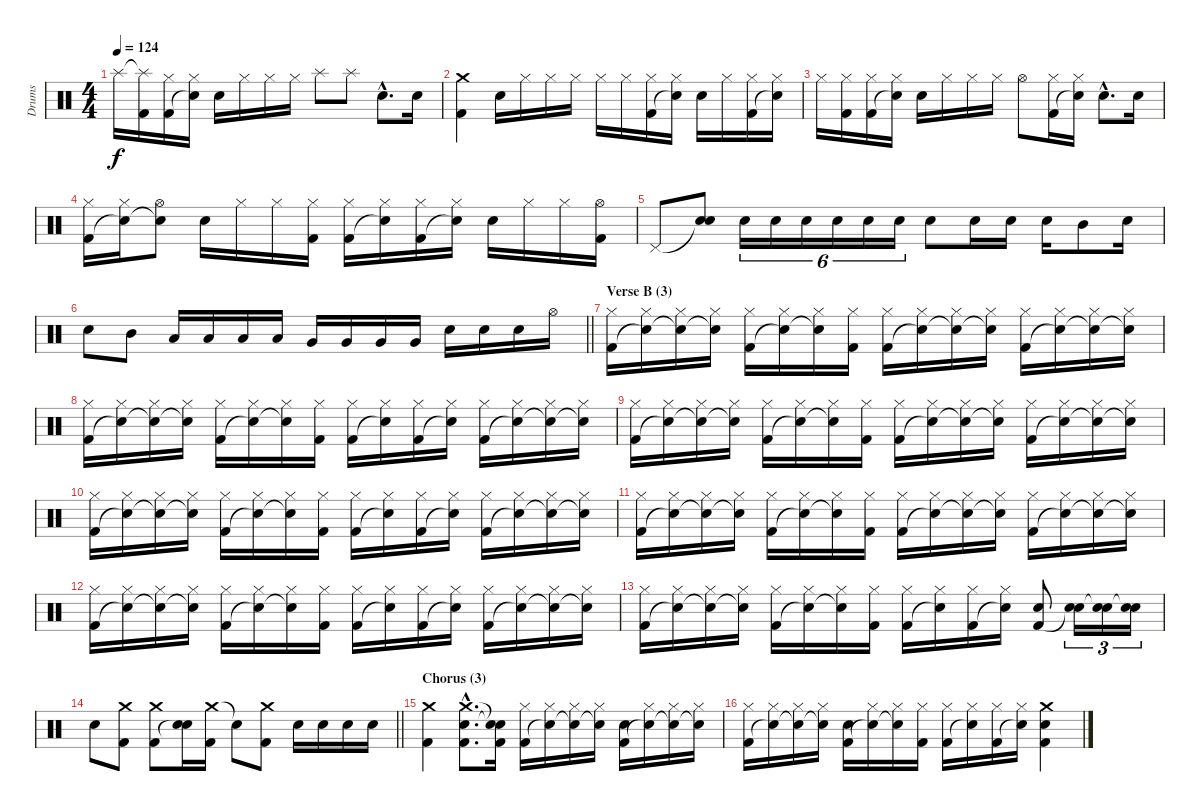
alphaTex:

\track ("Drums" "Drums") {instrument percussion}
\staff {score}
\articulation defaults
\ts (4 4)
\tempo 124
\clef neutral
\ks aminor "Splash (hit)".16{dy f}
("Splash (hit)"{t} "Kick (hit) 2").16 ("Hi-Hat (closed)" "Kick (hit) 2").16 ("Hi-Hat (closed)" "Snare (hit)"{t}).16 "Electric Snare (hit)".16 "Hi-Hat (closed)".16 "Hi-Hat (closed)".16 "Hi-Hat (closed)".16 "Splash (hit)".8 "Splash (hit)".8 "Electric Snare (hit)"{hac}.8{d} "Electric Snare (hit)".16 |
("Crash medium (hit)" "Kick (hit) 2").4 "Electric Snare (hit)".16 "Hi-Hat (closed)".16 "Hi-Hat (closed)".16 "Hi-Hat (closed)".16 "Hi-Hat (closed)".16 "Hi-Hat (closed)".16 ("Hi-Hat (closed)" "Kick (hit) 2").16 ("Hi-Hat (closed)" "Snare (hit)"{t}).16 "Electric Snare (hit)".16 "Hi-Hat (closed)".16 ("Hi-Hat (closed)" "Kick (hit) 2").16 ("Hi-Hat (closed)" "Snare (hit)"{t}).16 |
"Hi-Hat (closed)".16 ("Hi-Hat (closed)" "Kick (hit) 2").16 ("Hi-Hat (closed)" "Kick (hit) 2").16 ("Hi-Hat (closed)" "Snare (hit)"{t}).16 "Electric Snare (hit)".16 "Hi-Hat (closed)".16 "Hi-Hat (closed)".16 "Hi-Hat (closed)".16 "Hi-Hat (open)".8 ("Hi-Hat (closed)" "Kick (hit) 2").16 ("Hi-Hat (closed)" "Snare (hit)"{t}).16 "Electric Snare (hit)"{hac}.8{d} "Electric Snare (hit)".16 |
("Hi-Hat (closed)" "Kick (hit) 2").16 ("Hi-Hat (closed)" "Snare (hit)"{t}).16 ("Hi-Hat (open)" "Snare (hit)"{t}).8 "Electric Snare (hit)".16 "Hi-Hat (closed)".16 "Hi-Hat (closed)".16 ("Hi-Hat (closed)" "Kick (hit) 2").16 ("Hi-Hat (closed)" "Kick (hit) 2").16 ("Hi-Hat (closed)" "Snare (hit)"{t}).16 ("Hi-Hat (closed)" "Kick (hit) 2").16 ("Hi-Hat (closed)" "Snare (hit)"{t}).16 "Electric Snare (hit)".16 "Hi-Hat (closed)".16 "Hi-Hat (closed)".16 ("Hi-Hat (open)" "Kick (hit) 2").16 |
"Pedal Hi-Hat (hit)".8 ("Electric Snare (hit)"{t} "Electric Snare (hit)").8 "Electric Snare (hit)".16{tu (6 4)} "Electric Snare (hit)".16{tu (6 4)} "Electric Snare (hit)".16{tu (6 4)} "Electric Snare (hit)".16{tu (6 4)} "Electric Snare (hit)".16{tu (6 4)} "Electric Snare (hit)".16{tu (6 4)} "Electric Snare (hit)".8 "Electric Snare (hit)".16 "Electric Snare (hit)".16 "Electric Snare (hit)".16 "Mid Tom (hit)".8 "Electric Snare (hit)".16 |
\barLineRight lightlight "Electric Snare (hit)".8 "Mid Tom (hit)".8 "Low Tom (hit)".16 "Low Tom (hit)".16 "Low Tom (hit)".16 "Low Tom (hit)".16 "Very Low Tom (hit)".16 "Very Low Tom (hit)".16 "Very Low Tom (hit)".16 "Very Low Tom (hit)".16 "Electric Snare (hit)".16 "Electric Snare (hit)".16 "Electric Snare (hit)".16 "Hi-Hat (open)".16
|
\section ("" "Verse B (3)")
("Hi-Hat (closed)" "Kick (hit) 2").16 ("Hi-Hat (closed)" "Snare (hit)"{t}).16 ("Hi-Hat (closed)" "Snare (hit)"{t}).16 ("Hi-Hat (closed)" "Snare (hit)"{t}).16 ("Hi-Hat (closed)" "Kick (hit) 2").16 ("Hi-Hat (closed)" "Snare (hit)"{t}).16 ("Hi-Hat (closed)" "Snare (hit)"{t}).16 ("Hi-Hat (closed)" "Kick (hit) 2").16 ("Hi-Hat (closed)" "Kick (hit) 2").16 ("Hi-Hat (closed)" "Snare (hit)"{t}).16 ("Hi-Hat (closed)" "Snare (hit)"{t}).16 ("Hi-Hat (closed)" "Snare (hit)"{t}).16 ("Hi-Hat (closed)" "Kick (hit) 2").16 ("Hi-Hat (closed)" "Snare (hit)"{t}).16 ("Hi-Hat (closed)" "Snare (hit)"{t}).16 ("Hi-Hat (closed)" "Snare (hit)"{t}).16 |
("Hi-Hat (closed)" "Kick (hit) 2").16 ("Hi-Hat (closed)" "Snare (hit)"{t}).16 ("Hi-Hat (closed)" "Snare (hit)"{t}).16 ("Hi-Hat (closed)" "Snare (hit)"{t}).16 ("Hi-Hat (closed)" "Kick (hit) 2").16 ("Hi-Hat (closed)" "Snare (hit)"{t}).16 ("Hi-Hat (closed)" "Snare (hit)"{t}).16 ("Hi-Hat (closed)" "Kick (hit) 2").16 ("Hi-Hat (closed)" "Kick (hit) 2").16 ("Hi-Hat (closed)" "Snare (hit)"{t}).16 ("Hi-Hat (closed)" "Kick (hit) 2").16 ("Hi-Hat (closed)" "Snare (hit)"{t}).16 ("Hi-Hat (closed)" "Kick (hit) 2").16 ("Hi-Hat (closed)" "Snare (hit)"{t}).16 ("Hi-Hat (closed)" "Snare (hit)"{t}).16 ("Hi-Hat (closed)" "Snare (hit)"{t}).16 |
("Hi-Hat (closed)" "Kick (hit) 2").16 ("Hi-Hat (closed)" "Snare (hit)"{t}).16 ("Hi-Hat (closed)" "Snare (hit)"{t}).16 ("Hi-Hat (closed)" "Snare (hit)"{t}).16 ("Hi-Hat (closed)" "Kick (hit) 2").16 ("Hi-Hat (closed)" "Snare (hit)"{t}).16 ("Hi-Hat (closed)" "Snare (hit)"{t}).16 ("Hi-Hat (closed)" "Kick (hit) 2").16 ("Hi-Hat (closed)" "Kick (hit) 2").16 ("Hi-Hat (closed)" "Snare (hit)"{t}).16 ("Hi-Hat (closed)" "Snare (hit)"{t}).16 ("Hi-Hat (closed)" "Snare (hit)"{t}).16 ("Hi-Hat (closed)" "Kick (hit) 2").16 ("Hi-Hat (closed)" "Snare (hit)"{t}).16 ("Hi-Hat (closed)" "Snare (hit)"{t}).16 ("Hi-Hat (closed)" "Snare (hit)"{t}).16 |
("Hi-Hat (closed)" "Kick (hit) 2").16 ("Hi-Hat (closed)" "Snare (hit)"{t}).16 ("Hi-Hat (closed)" "Snare (hit)"{t}).16 ("Hi-Hat (closed)" "Snare (hit)"{t}).16 ("Hi-Hat (closed)" "Kick (hit) 2").16 ("Hi-Hat (closed)" "Snare (hit)"{t}).16 ("Hi-Hat (closed)" "Snare (hit)"{t}).16 ("Hi-Hat (closed)" "Kick (hit) 2").16 ("Hi-Hat (closed)" "Kick (hit) 2").16 ("Hi-Hat (closed)" "Snare (hit)"{t}).16 ("Hi-Hat (closed)" "Kick (hit) 2").16 ("Hi-Hat (closed)" "Snare (hit)"{t}).16 ("Hi-Hat (closed)" "Kick (hit) 2").16 ("Hi-Hat (closed)" "Snare (hit)"{t}).16 ("Hi-Hat (closed)" "Snare (hit)"{t}).16 ("Hi-Hat (closed)" "Snare (hit)"{t}).16 |
("Hi-Hat (closed)" "Kick (hit) 2").16 ("Hi-Hat (closed)" "Snare (hit)"{t}).16 ("Hi-Hat (closed)" "Snare (hit)"{t}).16 ("Hi-Hat (closed)" "Snare (hit)"{t}).16 ("Hi-Hat (closed)" "Kick (hit) 2").16 ("Hi-Hat (closed)" "Snare (hit)"{t}).16 ("Hi-Hat (closed)" "Snare (hit)"{t}).16 ("Hi-Hat (closed)" "Kick (hit) 2").16 ("Hi-Hat (closed)" "Kick (hit) 2").16 ("Hi-Hat (closed)" "Snare (hit)"{t}).16 ("Hi-Hat (closed)" "Snare (hit)"{t}).16 ("Hi-Hat (closed)" "Snare (hit)"{t}).16 ("Hi-Hat (closed)" "Kick (hit) 2").16 ("Hi-Hat (closed)" "Snare (hit)"{t}).16 ("Hi-Hat (closed)" "Snare (hit)"{t}).16 ("Hi-Hat (closed)" "Snare (hit)"{t}).16 |
("Hi-Hat (closed)" "Kick (hit) 2").16 ("Hi-Hat (closed)" "Snare (hit)"{t}).16 ("Hi-Hat (closed)" "Snare (hit)"{t}).16 ("Hi-Hat (closed)" "Snare (hit)"{t}).16 ("Hi-Hat (closed)" "Kick (hit) 2").16 ("Hi-Hat (closed)" "Snare (hit)"{t}).16 ("Hi-Hat (closed)" "Snare (hit)"{t}).16 ("Hi-Hat (closed)" "Kick (hit) 2").16 ("Hi-Hat (closed)" "Kick (hit) 2").16 ("Hi-Hat (closed)" "Snare (hit)"{t}).16 ("Hi-Hat (closed)" "Kick (hit) 2").16 ("Hi-Hat (closed)" "Snare (hit)"{t}).16 ("Hi-Hat (closed)" "Kick (hit) 2").16 ("Hi-Hat (closed)" "Snare (hit)"{t}).16 ("Hi-Hat (closed)" "Snare (hit)"{t}).16 ("Hi-Hat (closed)" "Snare (hit)"{t}).16 |
("Hi-Hat (closed)" "Kick (hit) 2").16 ("Hi-Hat (closed)" "Snare (hit)"{t}).16 ("Hi-Hat (closed)" "Snare (hit)"{t}).16 ("Hi-Hat (closed)" "Snare (hit)"{t}).16 ("Hi-Hat (closed)" "Kick (hit) 2").16 ("Hi-Hat (closed)" "Snare (hit)"{t}).16 ("Hi-Hat (closed)" "Snare (hit)"{t}).16 ("Hi-Hat (closed)" "Kick (hit) 2").16 ("Hi-Hat (closed)" "Kick (hit) 2").16 ("Hi-Hat (closed)" "Snare (hit)"{t}).16 ("Hi-Hat (closed)" "Kick (hit) 2").16 ("Hi-Hat (closed)" "Snare (hit)"{t}).16 ("Electric Snare (hit)" "Kick (hit) 2").8 ("Electric Snare (hit)" "Snare (hit)"{t}).16{tu (3 2)} ("Electric Snare (hit)" "Snare (hit)"{t}).16{tu (3 2)} ("Electric Snare (hit)" "Snare (hit)"{t}).16{tu (3 2)} |
\barLineRight lightlight "Electric Snare (hit)".8
("Crash medium (hit)" "Kick (hit) 2").8 ("Crash medium (hit)" "Kick (hit) 2").8 ("Electric Snare (hit)" "Snare (hit)"{t}).16 ("Crash medium (hit)" "Kick (hit) 2").16 "Snare (hit)"{t}.8 ("Crash medium (hit)" "Kick (hit) 2").8 "Electric Snare (hit)".16 "Electric Snare (hit)".16 "Electric Snare (hit)".16 "Electric Snare (hit)".16 |
\section ("" "Chorus (3)")
("Crash medium (hit)" "Kick (hit) 2").4 ("Crash medium (hit)"{hac} "Electric Snare (hit)"{hac} "Kick (hit) 2"{hac}).8{d} ("Snare (hit)"{t} "Snare (hit)"{t} "Kick (hit) 2").16 ("Hi-Hat (closed)" "Kick (hit) 2").16 ("Hi-Hat (closed)" "Snare (hit)"{t}).16 ("Hi-Hat (closed)" "Snare (hit)"{t}).16 ("Hi-Hat (closed)" "Snare (hit)"{t}).16 ("Electric Snare (hit)" "Kick (hit) 2").16 ("Hi-Hat (closed)" "Snare (hit)"{t}).16 ("Hi-Hat (closed)" "Snare (hit)"{t}).16 ("Hi-Hat (closed)" "Snare (hit)"{t}).16 |
("Hi-Hat (closed)" "Kick (hit) 2").16 ("Hi-Hat (closed)" "Snare (hit)"{t}).16 ("Hi-Hat (closed)" "Snare (hit)"{t}).16 ("Hi-Hat (closed)" "Snare (hit)"{t}).16 ("Electric Snare (hit)" "Kick (hit) 2").16 ("Hi-Hat (closed)" "Snare (hit)"{t}).16 ("Hi-Hat (closed)" "Snare (hit)"{t}).16 ("Hi-Hat (closed)" "Kick (hit) 2").16 ("Hi-Hat (closed)" "Kick (hit) 2").16 ("Hi-Hat (closed)" "Snare (hit)"{t}).16 ("Hi-Hat (closed)" "Kick (hit) 2").16 ("Hi-Hat (closed)" "Snare (hit)"{t}).16 ("Crash medium (hit)" "Electric Snare (hit)" "Kick (hit) 2").4
